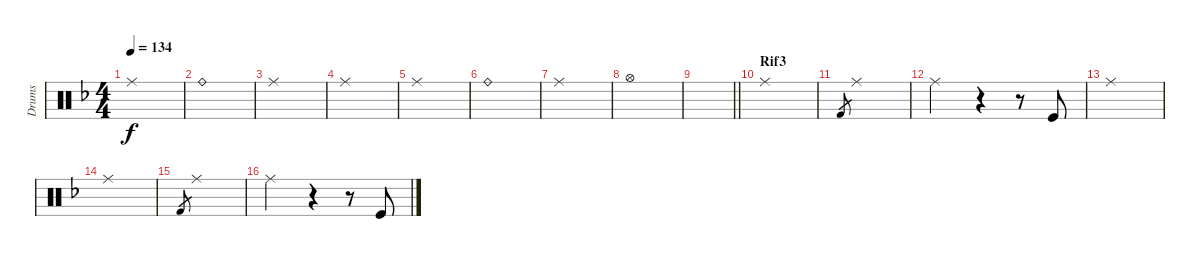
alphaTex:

\track ("Drums" "Drums") {instrument percussion}
\staff {score}
\articulation defaults
\ts (4 4)
\tempo 134
\clef neutral
\ks f "Ride (middle)".1{dy f}
|
"Ride (bell)".1 |
"Ride (middle)".1 |
"Ride (middle)".1 |
"Ride (middle)".1 |
"Ride (bell)".1 |
"Ride (middle)".1 |
"Hi-Hat (open)".1 |
\barLineRight lightlight
|
\section ("" "Rif3")
"Ride (middle)".1 |
"Kick (hit) 2".8{gr} "Ride (middle)".1 |
"Ride (middle)".2 r.4 r.8 "Kick (hit)".8 |
"Ride (middle)".1 |
"Ride (middle)".1 |
"Kick (hit) 2".8{gr} "Ride (middle)".1 |
"Ride (middle)".2 r.4 r.8 "Kick (hit)".8
